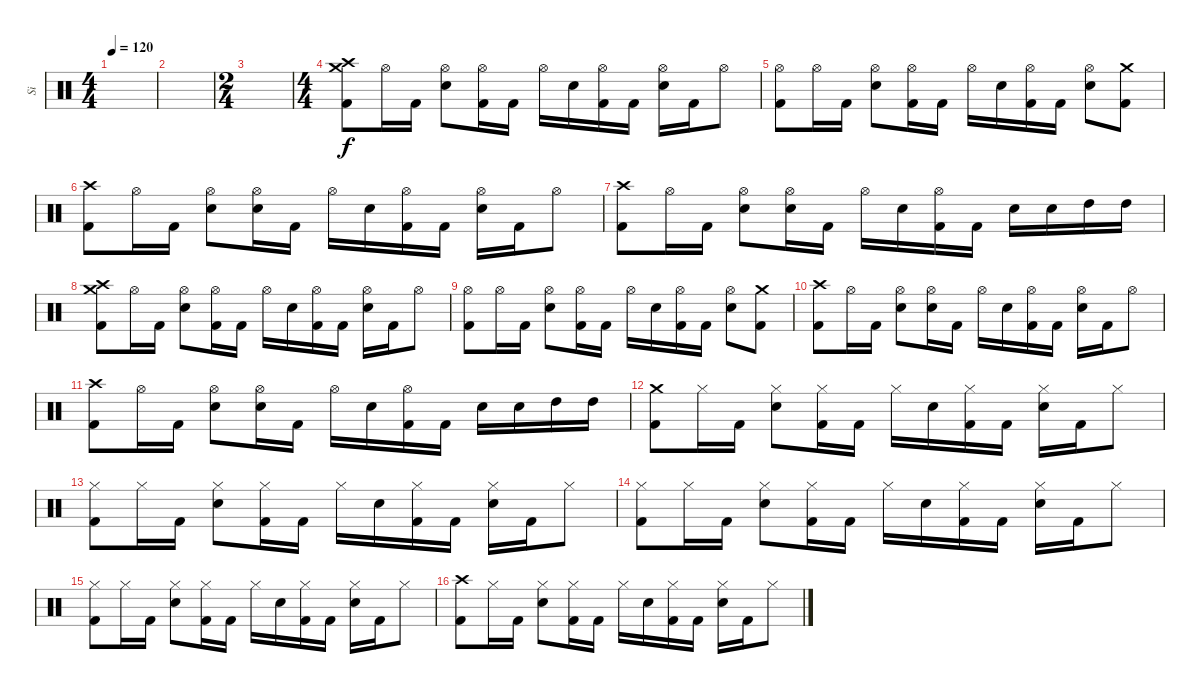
\track ("Si" "Si") {instrument percussion}
\staff {score}
\articulation defaults
\ts (4 4)
\tempo 120
\clef neutral
\ks c
|
|
\ts (2 4)
|
\ts (4 4)
("Crash high (hit)" "Crash medium (hit)" "Kick (hit) 2").8 "Hi-Hat (open)".16 "Kick (hit) 2".16 ("Hi-Hat (open)" "Electric Snare (hit)").8 ("Hi-Hat (open)" "Kick (hit) 2").16 "Kick (hit) 2".16 "Hi-Hat (open)".16 "Electric Snare (hit)".16 ("Hi-Hat (open)" "Kick (hit) 2").16 "Kick (hit) 2".16 ("Hi-Hat (open)" "Electric Snare (hit)").16 "Kick (hit) 2".16 "Hi-Hat (open)".8 |
("Hi-Hat (open)" "Kick (hit) 2").8 "Hi-Hat (open)".16 "Kick (hit) 2".16 ("Hi-Hat (open)" "Electric Snare (hit)").8 ("Hi-Hat (open)" "Kick (hit) 2").16 "Kick (hit) 2".16 "Hi-Hat (open)".16 "Electric Snare (hit)".16 ("Hi-Hat (open)" "Kick (hit) 2").16 "Kick (hit) 2".16 ("Hi-Hat (open)" "Electric Snare (hit)").8 ("Crash medium (hit)" "Kick (hit) 2").8 |
("Crash high (hit)" "Kick (hit) 2").8 "Hi-Hat (open)".16 "Kick (hit) 2".16 ("Hi-Hat (open)" "Electric Snare (hit)").8 ("Hi-Hat (open)" "Electric Snare (hit)").16 "Kick (hit) 2".16 "Hi-Hat (open)".16 "Electric Snare (hit)".16 ("Hi-Hat (open)" "Kick (hit) 2").16 "Kick (hit) 2".16 ("Hi-Hat (open)" "Electric Snare (hit)").16 "Kick (hit) 2".16 "Hi-Hat (open)".8 |
("Crash high (hit)" "Kick (hit) 2").8 "Hi-Hat (open)".16 "Kick (hit) 2".16 ("Hi-Hat (open)" "Electric Snare (hit)").8 ("Hi-Hat (open)" "Electric Snare (hit)").16 "Kick (hit) 2".16 "Hi-Hat (open)".16 "Electric Snare (hit)".16 ("Hi-Hat (open)" "Kick (hit) 2").16 "Kick (hit) 2".16 "Electric Snare (hit)".16 "Electric Snare (hit)".16 "High Tom (hit)".16 "High Tom (hit)".16 |
("Crash high (hit)" "Crash medium (hit)" "Kick (hit) 2").8 "Hi-Hat (open)".16 "Kick (hit) 2".16 ("Hi-Hat (open)" "Electric Snare (hit)").8 ("Hi-Hat (open)" "Kick (hit) 2").16 "Kick (hit) 2".16 "Hi-Hat (open)".16 "Electric Snare (hit)".16 ("Hi-Hat (open)" "Kick (hit) 2").16 "Kick (hit) 2".16 ("Hi-Hat (open)" "Electric Snare (hit)").16 "Kick (hit) 2".16 "Hi-Hat (open)".8 |
("Hi-Hat (open)" "Kick (hit) 2").8 "Hi-Hat (open)".16 "Kick (hit) 2".16 ("Hi-Hat (open)" "Electric Snare (hit)").8 ("Hi-Hat (open)" "Kick (hit) 2").16 "Kick (hit) 2".16 "Hi-Hat (open)".16 "Electric Snare (hit)".16 ("Hi-Hat (open)" "Kick (hit) 2").16 "Kick (hit) 2".16 ("Hi-Hat (open)" "Electric Snare (hit)").8 ("Crash medium (hit)" "Kick (hit) 2").8 |
("Crash high (hit)" "Kick (hit) 2").8 "Hi-Hat (open)".16 "Kick (hit) 2".16 ("Hi-Hat (open)" "Electric Snare (hit)").8 ("Hi-Hat (open)" "Electric Snare (hit)").16 "Kick (hit) 2".16 "Hi-Hat (open)".16 "Electric Snare (hit)".16 ("Hi-Hat (open)" "Kick (hit) 2").16 "Kick (hit) 2".16 ("Hi-Hat (open)" "Electric Snare (hit)").16 "Kick (hit) 2".16 "Hi-Hat (open)".8 |
("Crash high (hit)" "Kick (hit) 2").8 "Hi-Hat (open)".16 "Kick (hit) 2".16 ("Hi-Hat (open)" "Electric Snare (hit)").8 ("Hi-Hat (open)" "Electric Snare (hit)").16 "Kick (hit) 2".16 "Hi-Hat (open)".16 "Electric Snare (hit)".16 ("Hi-Hat (open)" "Kick (hit) 2").16 "Kick (hit) 2".16 "Electric Snare (hit)".16 "Electric Snare (hit)".16 "High Tom (hit)".16 "High Tom (hit)".16 |
("Crash medium (hit)" "Kick (hit) 2").8 "Hi-Hat (closed)".16 "Kick (hit) 2".16 ("Hi-Hat (closed)" "Electric Snare (hit)").8 ("Hi-Hat (closed)" "Kick (hit) 2").16 "Kick (hit) 2".16 "Hi-Hat (closed)".16 "Electric Snare (hit)".16 ("Hi-Hat (closed)" "Kick (hit) 2").16 "Kick (hit) 2".16 ("Hi-Hat (closed)" "Electric Snare (hit)").16 "Kick (hit) 2".16 "Hi-Hat (closed)".8 |
("Hi-Hat (closed)" "Kick (hit) 2").8 "Hi-Hat (closed)".16 "Kick (hit) 2".16 ("Hi-Hat (closed)" "Electric Snare (hit)").8 ("Hi-Hat (closed)" "Kick (hit) 2").16 "Kick (hit) 2".16 "Hi-Hat (closed)".16 "Electric Snare (hit)".16 ("Hi-Hat (closed)" "Kick (hit) 2").16 "Kick (hit) 2".16 ("Hi-Hat (closed)" "Electric Snare (hit)").16 "Kick (hit) 2".16 "Hi-Hat (closed)".8 |
("Hi-Hat (closed)" "Kick (hit) 2").8 "Hi-Hat (closed)".16 "Kick (hit) 2".16 ("Hi-Hat (closed)" "Electric Snare (hit)").8 ("Hi-Hat (closed)" "Kick (hit) 2").16 "Kick (hit) 2".16 "Hi-Hat (closed)".16 "Electric Snare (hit)".16 ("Hi-Hat (closed)" "Kick (hit) 2").16 "Kick (hit) 2".16 ("Hi-Hat (closed)" "Electric Snare (hit)").16 "Kick (hit) 2".16 "Hi-Hat (closed)".8 |
("Hi-Hat (closed)" "Kick (hit) 2").8 "Hi-Hat (closed)".16 "Kick (hit) 2".16 ("Hi-Hat (closed)" "Electric Snare (hit)").8 ("Hi-Hat (closed)" "Kick (hit) 2").16 "Kick (hit) 2".16 "Hi-Hat (closed)".16 "Electric Snare (hit)".16 ("Hi-Hat (closed)" "Kick (hit) 2").16 "Kick (hit) 2".16 ("Hi-Hat (closed)" "Electric Snare (hit)").16 "Kick (hit) 2".16 "Hi-Hat (closed)".8 |
("Crash high (hit)" "Kick (hit) 2").8 "Hi-Hat (closed)".16 "Kick (hit) 2".16 ("Hi-Hat (closed)" "Electric Snare (hit)").8 ("Hi-Hat (closed)" "Kick (hit) 2").16 "Kick (hit) 2".16 "Hi-Hat (closed)".16 "Electric Snare (hit)".16 ("Hi-Hat (closed)" "Kick (hit) 2").16 "Kick (hit) 2".16 ("Hi-Hat (closed)" "Electric Snare (hit)").16 "Kick (hit) 2".16 "Hi-Hat (closed)".8
